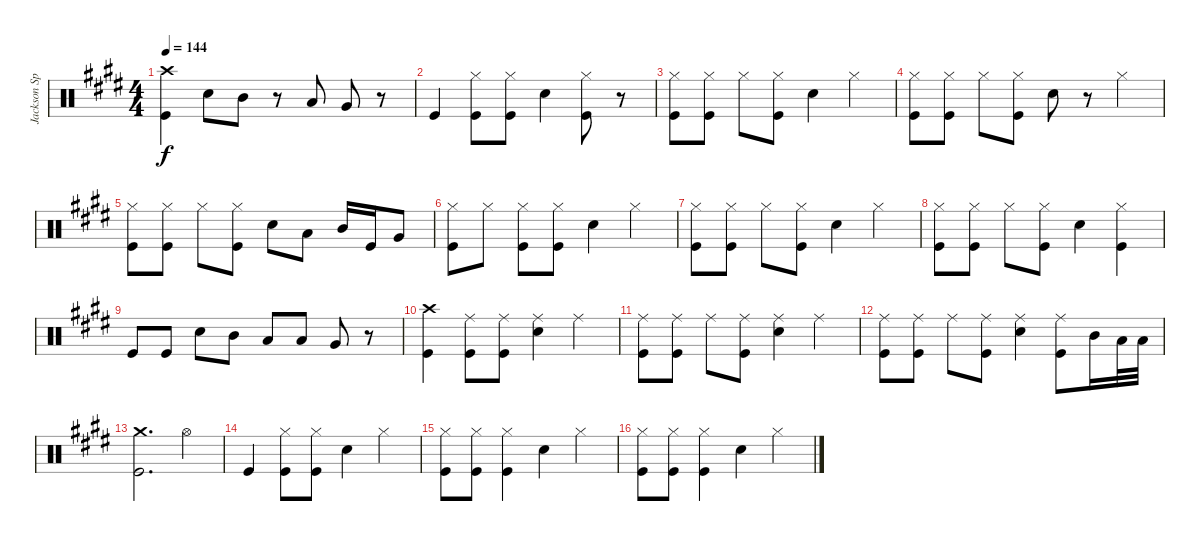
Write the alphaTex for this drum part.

\track ("Jackson Spiers Drums" "Jackson Sp") {instrument percussion}
\staff {score}
\articulation defaults
\ts (4 4)
\tempo 144
\clef neutral
\ks c#minor
("Crash high (hit)" "Kick (hit)").4{dy f} "Snare (hit) 2".8 "Mid Tom (hit)".8 r.8 "Low Tom (hit)".8 "Very Low Tom (hit)".8 r.8 |
"Kick (hit)".4 ("Hi-Hat (closed)" "Kick (hit)").8 ("Hi-Hat (closed)" "Kick (hit)").8 "Snare (hit) 2".4 ("Hi-Hat (closed)" "Kick (hit)").8 r.8 |
("Hi-Hat (closed)" "Kick (hit)").8 ("Hi-Hat (closed)" "Kick (hit)").8 "Hi-Hat (closed)".8 ("Hi-Hat (closed)" "Kick (hit)").8 "Snare (hit) 2".4 "Hi-Hat (closed)".4 |
("Hi-Hat (closed)" "Kick (hit)").8 ("Hi-Hat (closed)" "Kick (hit)").8 "Hi-Hat (closed)".8 ("Hi-Hat (closed)" "Kick (hit)").8 "Snare (hit) 2".8 r.8 "Hi-Hat (closed)".4 |
("Hi-Hat (closed)" "Kick (hit)").8 ("Hi-Hat (closed)" "Kick (hit)").8 "Hi-Hat (closed)".8 ("Hi-Hat (closed)" "Kick (hit)").8 "Snare (hit) 2".8 "Low Tom (hit)".8 "Mid Tom (hit)".16 "Kick (hit)".16 "Very Low Tom (hit)".8 |
("Hi-Hat (closed)" "Kick (hit)").8 "Hi-Hat (closed)".8 ("Hi-Hat (closed)" "Kick (hit)").8 ("Hi-Hat (closed)" "Kick (hit)").8 "Snare (hit) 2".4 "Hi-Hat (closed)".4 |
("Hi-Hat (closed)" "Kick (hit)").8 ("Hi-Hat (closed)" "Kick (hit)").8 "Hi-Hat (closed)".8 ("Hi-Hat (closed)" "Kick (hit)").8 "Snare (hit) 2".4 "Hi-Hat (closed)".4 |
("Hi-Hat (closed)" "Kick (hit)").8 ("Hi-Hat (closed)" "Kick (hit)").8 "Hi-Hat (closed)".8 ("Hi-Hat (closed)" "Kick (hit)").8 "Snare (hit) 2".4 ("Hi-Hat (closed)" "Kick (hit)").4 |
"Kick (hit)".8 "Kick (hit)".8 "Snare (hit) 2".8 "Mid Tom (hit)".8 "Low Tom (hit)".8 "Low Tom (hit)".8 "Very Low Tom (hit)".8 r.8 |
("Crash high (hit)" "Kick (hit)").4 ("Ride (middle)" "Kick (hit)").8 ("Ride (middle)" "Kick (hit)").8 ("Ride (middle)" "Snare (hit) 2").4 "Ride (middle)".4 |
("Ride (middle)" "Kick (hit)").8 ("Ride (middle)" "Kick (hit)").8 "Ride (middle)".8 ("Ride (middle)" "Kick (hit)").8 ("Ride (middle)" "Snare (hit) 2").4 "Ride (middle)".4 |
("Ride (middle)" "Kick (hit)").8 ("Ride (middle)" "Kick (hit)").8 "Ride (middle)".8 ("Ride (middle)" "Kick (hit)").8 ("Ride (middle)" "Snare (hit) 2").4 ("Ride (middle)" "Kick (hit)").8 "Mid Tom (hit)".16 "Low Tom (hit)".32 "Low Tom (hit)".32 |
("Crash medium (hit)" "Kick (hit)").2{d} "Hi-Hat (open)".4 |
"Kick (hit)".4 ("Hi-Hat (closed)" "Kick (hit)").8 ("Hi-Hat (closed)" "Kick (hit)").8 "Snare (hit) 2".4 "Hi-Hat (closed)".4 |
("Hi-Hat (closed)" "Kick (hit)").8 ("Hi-Hat (closed)" "Kick (hit)").8 ("Hi-Hat (closed)" "Kick (hit)").4 "Snare (hit) 2".4 "Hi-Hat (closed)".4 |
("Hi-Hat (closed)" "Kick (hit)").8 ("Hi-Hat (closed)" "Kick (hit)").8 ("Hi-Hat (closed)" "Kick (hit)").4 "Snare (hit) 2".4 "Hi-Hat (closed)".4
